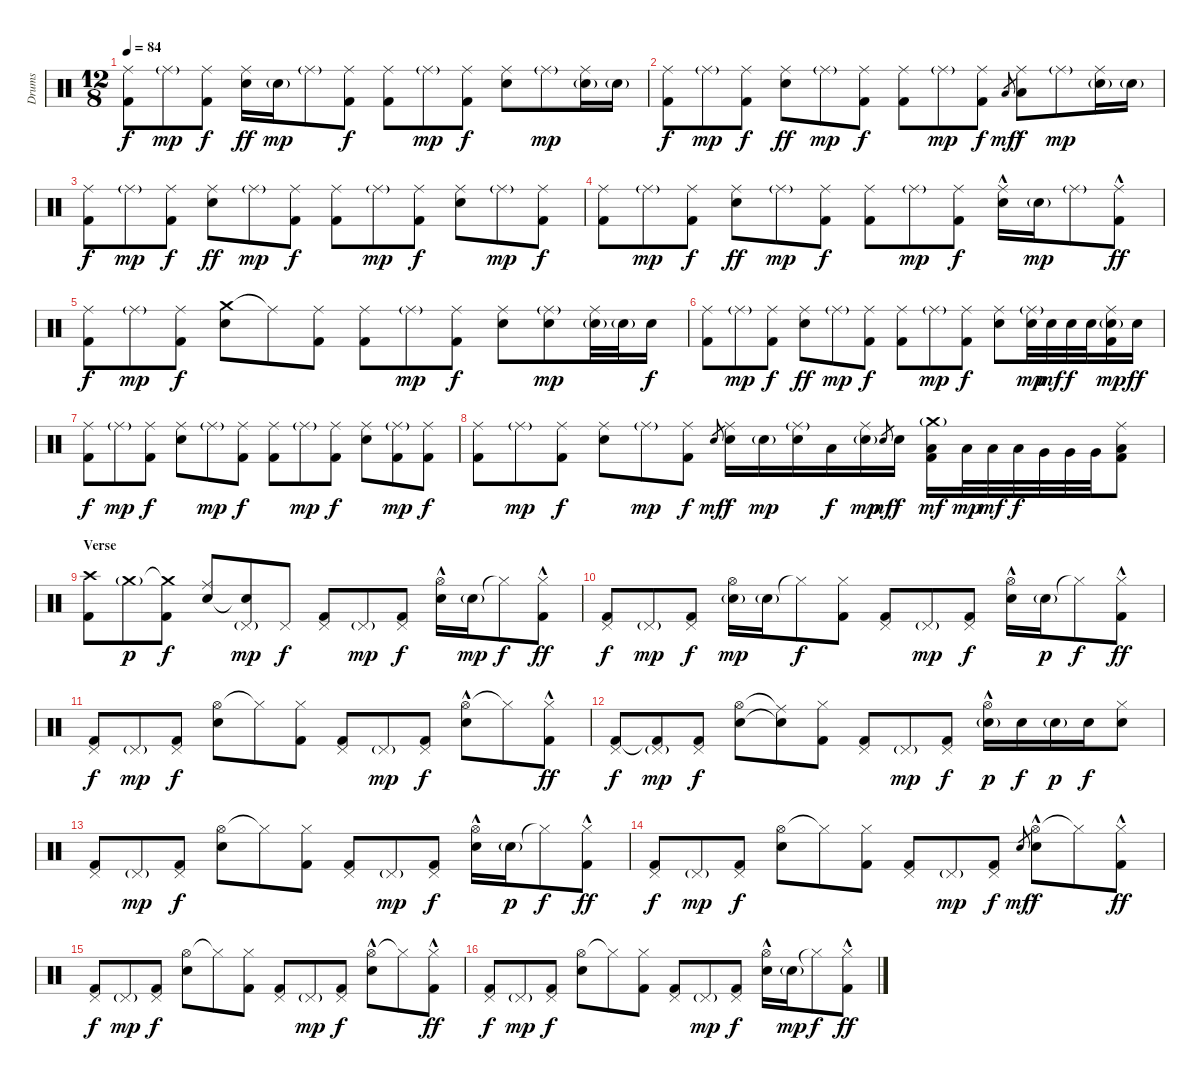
\track ("Drums" "Drums") {instrument percussion}
\staff {score}
\articulation defaults
\ts (12 8)
\tempo 84
\clef neutral
\ks c
("Ride (middle)" "Kick (hit) 2").8{dy f} "Ride (middle)"{g}.8{dy mp} ("Ride (middle)" "Kick (hit) 2").8{dy f} ("Ride (middle)" "Electric Snare (hit)").16{dy ff} "Electric Snare (hit)"{g}.16{dy mp} "Ride (middle)"{g}.8 ("Ride (middle)" "Kick (hit) 2").8{dy f} ("Ride (middle)" "Kick (hit) 2").8 "Ride (middle)"{g}.8{dy mp} ("Ride (middle)" "Kick (hit) 2").8{dy f} ("Ride (middle)" "Electric Snare (hit)").8 "Ride (middle)"{g}.8{dy mp} ("Ride (middle)" "Electric Snare (hit)"{g}).16 "Electric Snare (hit)"{g}.16 |
("Ride (middle)" "Kick (hit) 2").8{dy f} "Ride (middle)"{g}.8{dy mp} ("Ride (middle)" "Kick (hit) 2").8{dy f} ("Ride (middle)" "Electric Snare (hit)").8{dy ff} "Ride (middle)"{g}.8{dy mp} ("Ride (middle)" "Kick (hit) 2").8{dy f} ("Ride (middle)" "Kick (hit) 2").8 "Ride (middle)"{g}.8{dy mp} ("Ride (middle)" "Kick (hit) 2").8{dy f} "Low Tom (hit)".8{gr dy mf} ("Ride (middle)" "Low Tom (hit)").8{dy f} "Ride (middle)"{g}.8{dy mp} ("Ride (middle)" "Electric Snare (hit)"{g}).16 "Electric Snare (hit)"{g}.16 |
("Ride (middle)" "Kick (hit) 2").8{dy f} "Ride (middle)"{g}.8{dy mp} ("Ride (middle)" "Kick (hit) 2").8{dy f} ("Ride (middle)" "Electric Snare (hit)").8{dy ff} "Ride (middle)"{g}.8{dy mp} ("Ride (middle)" "Kick (hit) 2").8{dy f} ("Ride (middle)" "Kick (hit) 2").8 "Ride (middle)"{g}.8{dy mp} ("Ride (middle)" "Kick (hit) 2").8{dy f} ("Ride (middle)" "Electric Snare (hit)").8 "Ride (middle)"{g}.8{dy mp} ("Ride (middle)" "Kick (hit) 2").8{dy f} |
("Ride (middle)" "Kick (hit) 2").8 "Ride (middle)"{g}.8{dy mp} ("Ride (middle)" "Kick (hit) 2").8{dy f} ("Ride (middle)" "Electric Snare (hit)").8{dy ff} "Ride (middle)"{g}.8{dy mp} ("Ride (middle)" "Kick (hit) 2").8{dy f} ("Ride (middle)" "Kick (hit) 2").8 "Ride (middle)"{g}.8{dy mp} ("Ride (middle)" "Kick (hit) 2").8{dy f} ("Ride (middle)" "Electric Snare (hit)"{hac}).16 "Electric Snare (hit)"{g}.16{dy mp} "Ride (middle)"{g}.8 ("Ride (middle)"{hac} "Kick (hit) 2").8{dy ff} |
("Ride (middle)" "Kick (hit) 2").8{dy f} "Ride (middle)"{g}.8{dy mp} ("Ride (middle)" "Kick (hit) 2").8{dy f} ("Crash medium (hit)" "Electric Snare (hit)").8 "Ride (middle)"{t}.8 ("Ride (middle)" "Kick (hit) 2").8 ("Ride (middle)" "Kick (hit) 2").8 "Ride (middle)"{g}.8{dy mp} ("Ride (middle)" "Kick (hit) 2").8{dy f} ("Ride (middle)" "Electric Snare (hit)").8 ("Ride (middle)"{g} "Electric Snare (hit)").8{dy mp} ("Ride (middle)" "Electric Snare (hit)"{g}).32 "Electric Snare (hit)"{g}.32 "Electric Snare (hit)".16{dy f} |
("Ride (middle)" "Kick (hit) 2").8 "Ride (middle)"{g}.8{dy mp} ("Ride (middle)" "Kick (hit) 2").8{dy f} ("Ride (middle)" "Electric Snare (hit)").8{dy ff} "Ride (middle)"{g}.8{dy mp} ("Ride (middle)" "Kick (hit) 2").8{dy f} ("Ride (middle)" "Kick (hit) 2").8 "Ride (middle)"{g}.8{dy mp} ("Ride (middle)" "Kick (hit) 2").8{dy f} ("Ride (middle)" "Electric Snare (hit)").8 ("Ride (middle)"{g} "Electric Snare (hit)").32{dy mp} "Electric Snare (hit)".32{dy mf} "Electric Snare (hit)".32{dy f} "Electric Snare (hit)".32 ("Ride (middle)" "Electric Snare (hit)"{g} "Kick (hit) 2").16{dy mp} "Electric Snare (hit)".16{dy ff} |
("Ride (middle)" "Kick (hit) 2").8{dy f} "Ride (middle)"{g}.8{dy mp} ("Ride (middle)" "Kick (hit) 2").8{dy f} ("Ride (middle)" "Electric Snare (hit)").8 "Ride (middle)"{g}.8{dy mp} ("Ride (middle)" "Kick (hit) 2").8{dy f} ("Ride (middle)" "Kick (hit) 2").8 "Ride (middle)"{g}.8{dy mp} ("Ride (middle)" "Kick (hit) 2").8{dy f} ("Ride (middle)" "Electric Snare (hit)").8 ("Ride (middle)"{g} "Kick (hit) 2").8{dy mp} ("Ride (middle)" "Kick (hit) 2").8{dy f} |
("Ride (middle)" "Kick (hit) 2").8 "Ride (middle)"{g}.8{dy mp} ("Ride (middle)" "Kick (hit) 2").8{dy f} ("Ride (middle)" "Electric Snare (hit)").8 "Ride (middle)"{g}.8{dy mp} ("Ride (middle)" "Kick (hit) 2").8{dy f} "Electric Snare (hit)".8{gr dy mf} ("Ride (middle)" "Electric Snare (hit)").16{dy f} "Electric Snare (hit)"{g}.16{dy mp} ("Ride (middle)"{g} "Electric Snare (hit)").16 "Low Tom (hit)".16{dy f} ("Ride (middle)" "Electric Snare (hit)"{g}).16{dy mp} "Electric Snare (hit)"{sl}.8{gr dy mf} "Electric Snare (hit)".16{dy f} ("Crash medium (hit)"{g} "Low Tom (hit)" "Kick (hit) 2").16{dy mf} "Low Tom (hit)".32{dy mp} "Low Tom (hit)".32{dy mf} "Low Tom (hit)".32{dy f} "Very Low Tom (hit)".32 "Very Low Tom (hit)".32 "Very Low Tom (hit)".32 ("Ride (middle)" "Low Floor Tom (hit)" "Kick (hit) 2").8 |
\section ("" "Verse")
("Crash high (hit)" "Kick (hit) 2").8 "Crash medium (hit)"{g}.8{dy p} ("Crash medium (hit)"{t} "Kick (hit) 2").8{dy f} ("Ride (middle)" "Electric Snare (hit)").8 ("Pedal Hi-Hat (hit)"{g} "Snare (hit)"{t}).8{dy mp} "Pedal Hi-Hat (hit)".8{dy f} ("Pedal Hi-Hat (hit)" "Kick (hit) 2").8 "Pedal Hi-Hat (hit)"{g}.8{dy mp} ("Pedal Hi-Hat (hit)" "Kick (hit) 2").8{dy f} ("Hi-Hat (open)" "Electric Snare (hit)"{hac}).16 "Electric Snare (hit)"{g}.16{dy mp} "Hi-Hat (closed)"{t}.8{dy f} ("Hi-Hat (closed)"{hac} "Kick (hit) 2").8{dy ff} |
("Pedal Hi-Hat (hit)" "Kick (hit) 2").8{dy f} "Pedal Hi-Hat (hit)"{g}.8{dy mp} ("Pedal Hi-Hat (hit)" "Kick (hit) 2").8{dy f} ("Hi-Hat (open)" "Electric Snare (hit)"{g}).16{dy mp} "Electric Snare (hit)"{g}.16 "Hi-Hat (closed)"{t}.8{dy f} ("Hi-Hat (closed)" "Kick (hit) 2").8 ("Pedal Hi-Hat (hit)" "Kick (hit) 2").8 "Pedal Hi-Hat (hit)"{g}.8{dy mp} ("Pedal Hi-Hat (hit)" "Kick (hit) 2").8{dy f} ("Hi-Hat (open)" "Electric Snare (hit)"{hac}).16 "Electric Snare (hit)"{g}.16{dy p} "Hi-Hat (closed)"{t}.8{dy f} ("Hi-Hat (closed)"{hac} "Kick (hit) 2").8{dy ff} |
("Pedal Hi-Hat (hit)" "Kick (hit) 2").8{dy f} "Pedal Hi-Hat (hit)"{g}.8{dy mp} ("Pedal Hi-Hat (hit)" "Kick (hit) 2").8{dy f} ("Hi-Hat (open)" "Electric Snare (hit)").8 "Hi-Hat (closed)"{t}.8 ("Hi-Hat (closed)" "Kick (hit) 2").8 ("Pedal Hi-Hat (hit)" "Kick (hit) 2").8 "Pedal Hi-Hat (hit)"{g}.8{dy mp} ("Pedal Hi-Hat (hit)" "Kick (hit) 2").8{dy f} ("Hi-Hat (open)" "Electric Snare (hit)"{hac}).8 "Hi-Hat (closed)"{t}.8 ("Hi-Hat (closed)"{hac} "Kick (hit) 2").8{dy ff} |
("Pedal Hi-Hat (hit)" "Kick (hit) 2").8{dy f} ("Pedal Hi-Hat (hit)"{g} "Kick (hit) 2"{t}).8{dy mp} ("Pedal Hi-Hat (hit)" "Kick (hit) 2").8{dy f} ("Hi-Hat (open)" "Electric Snare (hit)").8 ("Ride (middle)"{t} "Snare (hit)"{t}).8 ("Hi-Hat (closed)" "Kick (hit) 2").8 ("Pedal Hi-Hat (hit)" "Kick (hit) 2").8 "Pedal Hi-Hat (hit)"{g}.8{dy mp} ("Pedal Hi-Hat (hit)" "Kick (hit) 2").8{dy f} ("Hi-Hat (open)" "Electric Snare (hit)"{g hac}).16{dy p} "Electric Snare (hit)".16{dy f} "Electric Snare (hit)"{g}.16{dy p} "Electric Snare (hit)".16{dy f} ("Hi-Hat (closed)" "Electric Snare (hit)").8 |
("Pedal Hi-Hat (hit)" "Kick (hit) 2").8 "Pedal Hi-Hat (hit)"{g}.8{dy mp} ("Pedal Hi-Hat (hit)" "Kick (hit) 2").8{dy f} ("Hi-Hat (open)" "Electric Snare (hit)").8 "Hi-Hat (closed)"{t}.8 ("Hi-Hat (closed)" "Kick (hit) 2").8 ("Pedal Hi-Hat (hit)" "Kick (hit) 2").8 "Pedal Hi-Hat (hit)"{g}.8{dy mp} ("Pedal Hi-Hat (hit)" "Kick (hit) 2").8{dy f} ("Hi-Hat (open)" "Electric Snare (hit)"{hac}).16 "Electric Snare (hit)"{g}.16{dy p} "Hi-Hat (closed)"{t}.8{dy f} ("Hi-Hat (closed)"{hac} "Kick (hit) 2").8{dy ff} |
("Pedal Hi-Hat (hit)" "Kick (hit) 2").8{dy f} "Pedal Hi-Hat (hit)"{g}.8{dy mp} ("Pedal Hi-Hat (hit)" "Kick (hit) 2").8{dy f} ("Hi-Hat (open)" "Electric Snare (hit)").8 "Hi-Hat (closed)"{t}.8 ("Hi-Hat (closed)" "Kick (hit) 2").8 ("Pedal Hi-Hat (hit)" "Kick (hit) 2").8 "Pedal Hi-Hat (hit)"{g}.8{dy mp} ("Pedal Hi-Hat (hit)" "Kick (hit) 2").8{dy f} "Electric Snare (hit)".8{gr dy mf} ("Hi-Hat (open)" "Electric Snare (hit)"{hac}).8{dy f} "Hi-Hat (closed)"{t}.8 ("Hi-Hat (closed)"{hac} "Kick (hit) 2").8{dy ff} |
("Pedal Hi-Hat (hit)" "Kick (hit) 2").8{dy f} "Pedal Hi-Hat (hit)"{g}.8{dy mp} ("Pedal Hi-Hat (hit)" "Kick (hit) 2").8{dy f} ("Hi-Hat (open)" "Electric Snare (hit)").8 "Hi-Hat (closed)"{t}.8 ("Hi-Hat (closed)" "Kick (hit) 2").8 ("Pedal Hi-Hat (hit)" "Kick (hit) 2").8 "Pedal Hi-Hat (hit)"{g}.8{dy mp} ("Pedal Hi-Hat (hit)" "Kick (hit) 2").8{dy f} ("Hi-Hat (open)" "Electric Snare (hit)"{hac}).8 "Hi-Hat (closed)"{t}.8 ("Hi-Hat (closed)"{hac} "Kick (hit) 2").8{dy ff} |
("Pedal Hi-Hat (hit)" "Kick (hit) 2").8{dy f} "Pedal Hi-Hat (hit)"{g}.8{dy mp} ("Pedal Hi-Hat (hit)" "Kick (hit) 2").8{dy f} ("Hi-Hat (open)" "Electric Snare (hit)").8 "Hi-Hat (closed)"{t}.8 ("Hi-Hat (closed)" "Kick (hit) 2").8 ("Pedal Hi-Hat (hit)" "Kick (hit) 2").8 "Pedal Hi-Hat (hit)"{g}.8{dy mp} ("Pedal Hi-Hat (hit)" "Kick (hit) 2").8{dy f} ("Hi-Hat (open)" "Electric Snare (hit)"{hac}).16 "Electric Snare (hit)"{g}.16{dy mp} "Hi-Hat (closed)"{t}.8{dy f} ("Hi-Hat (closed)"{hac} "Kick (hit) 2").8{dy ff}
